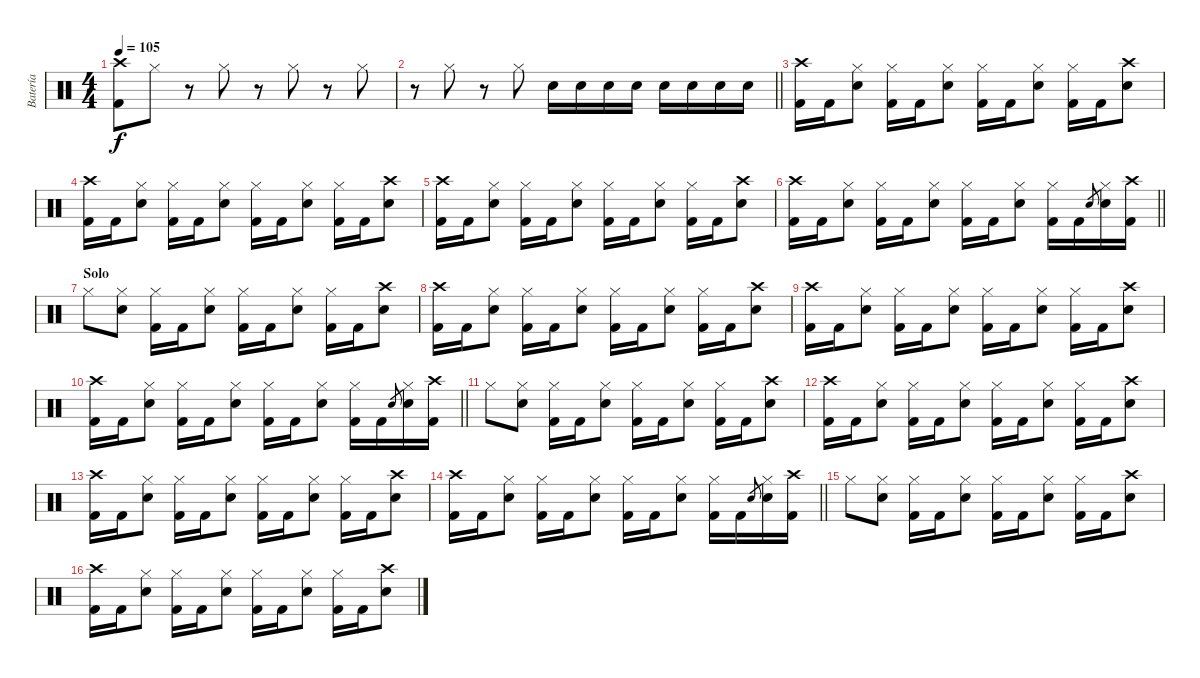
\track ("Batería" "Batería") {instrument percussion}
\staff {score}
\articulation defaults
\ts (4 4)
\tempo 105
\clef neutral
\ks c
("Kick (hit) 2" "Crash high (hit)").8{dy f} "Hi-Hat (closed)".8 r.8 "Hi-Hat (closed)".8 r.8 "Hi-Hat (closed)".8 r.8 "Hi-Hat (closed)".8 |
\barLineRight lightlight
r.8 "Hi-Hat (closed)".8 r.8 "Hi-Hat (closed)".8 "Snare (hit) 2".16 "Snare (hit) 2".16 "Snare (hit) 2".16 "Snare (hit) 2".16 "Snare (hit) 2".16 "Snare (hit) 2".16 "Snare (hit) 2".16 "Snare (hit) 2".16 |
("Crash high (hit)" "Kick (hit) 2").16 "Kick (hit) 2".16 ("Hi-Hat (closed)" "Snare (hit) 2").8 ("Hi-Hat (closed)" "Kick (hit) 2").16 "Kick (hit) 2".16 ("Hi-Hat (closed)" "Snare (hit) 2").8 ("Hi-Hat (closed)" "Kick (hit) 2").16 "Kick (hit) 2".16 ("Hi-Hat (closed)" "Snare (hit) 2").8 ("Hi-Hat (closed)" "Kick (hit) 2").16 "Kick (hit) 2".16 ("Crash high (hit)" "Snare (hit) 2").8 |
("Crash high (hit)" "Kick (hit) 2").16 "Kick (hit) 2".16 ("Hi-Hat (closed)" "Snare (hit) 2").8 ("Hi-Hat (closed)" "Kick (hit) 2").16 "Kick (hit) 2".16 ("Hi-Hat (closed)" "Snare (hit) 2").8 ("Hi-Hat (closed)" "Kick (hit) 2").16 "Kick (hit) 2".16 ("Hi-Hat (closed)" "Snare (hit) 2").8 ("Hi-Hat (closed)" "Kick (hit) 2").16 "Kick (hit) 2".16 ("Crash high (hit)" "Snare (hit) 2").8 |
("Crash high (hit)" "Kick (hit) 2").16 "Kick (hit) 2".16 ("Hi-Hat (closed)" "Snare (hit) 2").8 ("Hi-Hat (closed)" "Kick (hit) 2").16 "Kick (hit) 2".16 ("Hi-Hat (closed)" "Snare (hit) 2").8 ("Hi-Hat (closed)" "Kick (hit) 2").16 "Kick (hit) 2".16 ("Hi-Hat (closed)" "Snare (hit) 2").8 ("Hi-Hat (closed)" "Kick (hit) 2").16 "Kick (hit) 2".16 ("Crash high (hit)" "Snare (hit) 2").8 |
\barLineRight lightlight
("Crash high (hit)" "Kick (hit) 2").16 "Kick (hit) 2".16 ("Hi-Hat (closed)" "Snare (hit) 2").8 ("Hi-Hat (closed)" "Kick (hit) 2").16 "Kick (hit) 2".16 ("Hi-Hat (closed)" "Snare (hit) 2").8 ("Hi-Hat (closed)" "Kick (hit) 2").16 "Kick (hit) 2".16 ("Hi-Hat (closed)" "Snare (hit) 2").8 ("Hi-Hat (closed)" "Kick (hit) 2").16 "Kick (hit) 2".16 "Snare (hit) 2".8{gr} ("Hi-Hat (closed)" "Snare (hit) 2").16 ("Crash high (hit)" "Kick (hit) 2").16 |
\section ("" "Solo")
"Hi-Hat (closed)".8 ("Hi-Hat (closed)" "Snare (hit) 2").8 ("Hi-Hat (closed)" "Kick (hit) 2").16 "Kick (hit) 2".16 ("Hi-Hat (closed)" "Snare (hit) 2").8 ("Hi-Hat (closed)" "Kick (hit) 2").16 "Kick (hit) 2".16 ("Hi-Hat (closed)" "Snare (hit) 2").8 ("Hi-Hat (closed)" "Kick (hit) 2").16 "Kick (hit) 2".16 ("Crash high (hit)" "Snare (hit) 2").8 |
("Crash high (hit)" "Kick (hit) 2").16 "Kick (hit) 2".16 ("Hi-Hat (closed)" "Snare (hit) 2").8 ("Hi-Hat (closed)" "Kick (hit) 2").16 "Kick (hit) 2".16 ("Hi-Hat (closed)" "Snare (hit) 2").8 ("Hi-Hat (closed)" "Kick (hit) 2").16 "Kick (hit) 2".16 ("Hi-Hat (closed)" "Snare (hit) 2").8 ("Hi-Hat (closed)" "Kick (hit) 2").16 "Kick (hit) 2".16 ("Crash high (hit)" "Snare (hit) 2").8 |
("Crash high (hit)" "Kick (hit) 2").16 "Kick (hit) 2".16 ("Hi-Hat (closed)" "Snare (hit) 2").8 ("Hi-Hat (closed)" "Kick (hit) 2").16 "Kick (hit) 2".16 ("Hi-Hat (closed)" "Snare (hit) 2").8 ("Hi-Hat (closed)" "Kick (hit) 2").16 "Kick (hit) 2".16 ("Hi-Hat (closed)" "Snare (hit) 2").8 ("Hi-Hat (closed)" "Kick (hit) 2").16 "Kick (hit) 2".16 ("Crash high (hit)" "Snare (hit) 2").8 |
\barLineRight lightlight
("Crash high (hit)" "Kick (hit) 2").16 "Kick (hit) 2".16 ("Hi-Hat (closed)" "Snare (hit) 2").8 ("Hi-Hat (closed)" "Kick (hit) 2").16 "Kick (hit) 2".16 ("Hi-Hat (closed)" "Snare (hit) 2").8 ("Hi-Hat (closed)" "Kick (hit) 2").16 "Kick (hit) 2".16 ("Hi-Hat (closed)" "Snare (hit) 2").8 ("Hi-Hat (closed)" "Kick (hit) 2").16 "Kick (hit) 2".16 "Snare (hit) 2".8{gr} ("Hi-Hat (closed)" "Snare (hit) 2").16 ("Crash high (hit)" "Kick (hit) 2").16 |
"Hi-Hat (closed)".8 ("Hi-Hat (closed)" "Snare (hit) 2").8 ("Hi-Hat (closed)" "Kick (hit) 2").16 "Kick (hit) 2".16 ("Hi-Hat (closed)" "Snare (hit) 2").8 ("Hi-Hat (closed)" "Kick (hit) 2").16 "Kick (hit) 2".16 ("Hi-Hat (closed)" "Snare (hit) 2").8 ("Hi-Hat (closed)" "Kick (hit) 2").16 "Kick (hit) 2".16 ("Crash high (hit)" "Snare (hit) 2").8 |
("Crash high (hit)" "Kick (hit) 2").16 "Kick (hit) 2".16 ("Hi-Hat (closed)" "Snare (hit) 2").8 ("Hi-Hat (closed)" "Kick (hit) 2").16 "Kick (hit) 2".16 ("Hi-Hat (closed)" "Snare (hit) 2").8 ("Hi-Hat (closed)" "Kick (hit) 2").16 "Kick (hit) 2".16 ("Hi-Hat (closed)" "Snare (hit) 2").8 ("Hi-Hat (closed)" "Kick (hit) 2").16 "Kick (hit) 2".16 ("Crash high (hit)" "Snare (hit) 2").8 |
("Crash high (hit)" "Kick (hit) 2").16 "Kick (hit) 2".16 ("Hi-Hat (closed)" "Snare (hit) 2").8 ("Hi-Hat (closed)" "Kick (hit) 2").16 "Kick (hit) 2".16 ("Hi-Hat (closed)" "Snare (hit) 2").8 ("Hi-Hat (closed)" "Kick (hit) 2").16 "Kick (hit) 2".16 ("Hi-Hat (closed)" "Snare (hit) 2").8 ("Hi-Hat (closed)" "Kick (hit) 2").16 "Kick (hit) 2".16 ("Crash high (hit)" "Snare (hit) 2").8 |
\barLineRight lightlight
("Crash high (hit)" "Kick (hit) 2").16 "Kick (hit) 2".16 ("Hi-Hat (closed)" "Snare (hit) 2").8 ("Hi-Hat (closed)" "Kick (hit) 2").16 "Kick (hit) 2".16 ("Hi-Hat (closed)" "Snare (hit) 2").8 ("Hi-Hat (closed)" "Kick (hit) 2").16 "Kick (hit) 2".16 ("Hi-Hat (closed)" "Snare (hit) 2").8 ("Hi-Hat (closed)" "Kick (hit) 2").16 "Kick (hit) 2".16 "Snare (hit) 2".8{gr} ("Hi-Hat (closed)" "Snare (hit) 2").16 ("Crash high (hit)" "Kick (hit) 2").16 |
"Hi-Hat (closed)".8 ("Hi-Hat (closed)" "Snare (hit) 2").8 ("Hi-Hat (closed)" "Kick (hit) 2").16 "Kick (hit) 2".16 ("Hi-Hat (closed)" "Snare (hit) 2").8 ("Hi-Hat (closed)" "Kick (hit) 2").16 "Kick (hit) 2".16 ("Hi-Hat (closed)" "Snare (hit) 2").8 ("Hi-Hat (closed)" "Kick (hit) 2").16 "Kick (hit) 2".16 ("Crash high (hit)" "Snare (hit) 2").8 |
("Crash high (hit)" "Kick (hit) 2").16 "Kick (hit) 2".16 ("Hi-Hat (closed)" "Snare (hit) 2").8 ("Hi-Hat (closed)" "Kick (hit) 2").16 "Kick (hit) 2".16 ("Hi-Hat (closed)" "Snare (hit) 2").8 ("Hi-Hat (closed)" "Kick (hit) 2").16 "Kick (hit) 2".16 ("Hi-Hat (closed)" "Snare (hit) 2").8 ("Hi-Hat (closed)" "Kick (hit) 2").16 "Kick (hit) 2".16 ("Crash high (hit)" "Snare (hit) 2").8
